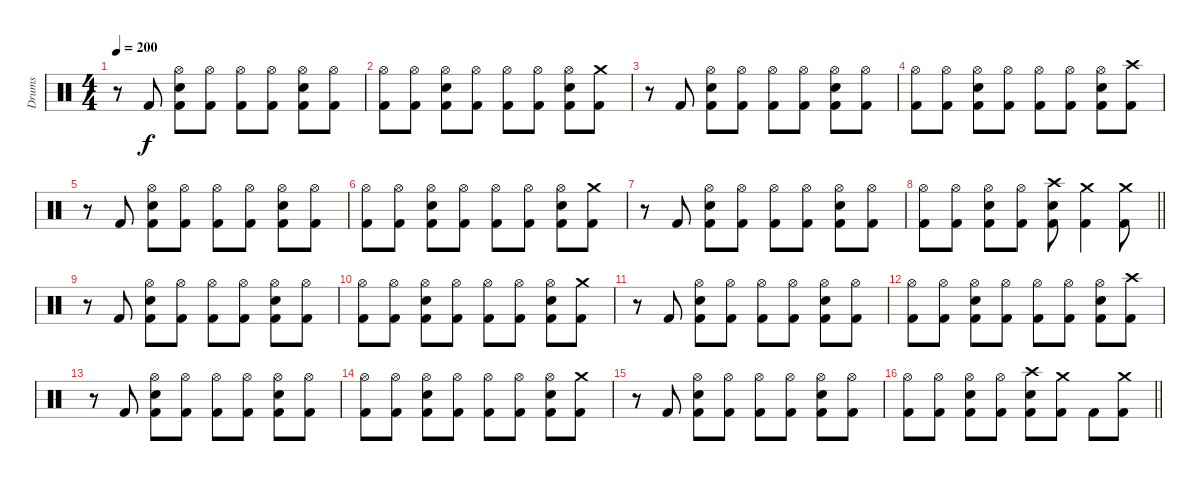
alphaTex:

\track ("Drums" "Drums") {instrument percussion}
\staff {score}
\articulation defaults
\ts (4 4)
\section ("" "")
\tempo 200
\clef neutral
\ks c
r.8{dy f} "Kick (hit) 2".8 ("Hi-Hat (open)" "Electric Snare (hit)" "Kick (hit) 2").8 ("Hi-Hat (open)" "Kick (hit) 2").8 ("Hi-Hat (open)" "Kick (hit) 2").8 ("Hi-Hat (open)" "Kick (hit) 2").8 ("Hi-Hat (open)" "Electric Snare (hit)" "Kick (hit) 2").8 ("Hi-Hat (open)" "Kick (hit) 2").8 |
("Hi-Hat (open)" "Kick (hit) 2").8 ("Hi-Hat (open)" "Kick (hit) 2").8 ("Hi-Hat (open)" "Electric Snare (hit)" "Kick (hit) 2").8 ("Hi-Hat (open)" "Kick (hit) 2").8 ("Hi-Hat (open)" "Kick (hit) 2").8 ("Hi-Hat (open)" "Kick (hit) 2").8 ("Hi-Hat (open)" "Electric Snare (hit)" "Kick (hit) 2").8 ("Crash medium (hit)" "Kick (hit) 2").8 |
r.8 "Kick (hit) 2".8 ("Hi-Hat (open)" "Electric Snare (hit)" "Kick (hit) 2").8 ("Hi-Hat (open)" "Kick (hit) 2").8 ("Hi-Hat (open)" "Kick (hit) 2").8 ("Hi-Hat (open)" "Kick (hit) 2").8 ("Hi-Hat (open)" "Electric Snare (hit)" "Kick (hit) 2").8 ("Hi-Hat (open)" "Kick (hit) 2").8 |
("Hi-Hat (open)" "Kick (hit) 2").8 ("Hi-Hat (open)" "Kick (hit) 2").8 ("Hi-Hat (open)" "Electric Snare (hit)" "Kick (hit) 2").8 ("Hi-Hat (open)" "Kick (hit) 2").8 ("Hi-Hat (open)" "Kick (hit) 2").8 ("Hi-Hat (open)" "Kick (hit) 2").8 ("Hi-Hat (open)" "Electric Snare (hit)" "Kick (hit) 2").8 ("Crash high (hit)" "Kick (hit) 2").8 |
r.8 "Kick (hit) 2".8 ("Hi-Hat (open)" "Electric Snare (hit)" "Kick (hit) 2").8 ("Hi-Hat (open)" "Kick (hit) 2").8 ("Hi-Hat (open)" "Kick (hit) 2").8 ("Hi-Hat (open)" "Kick (hit) 2").8 ("Hi-Hat (open)" "Electric Snare (hit)" "Kick (hit) 2").8 ("Hi-Hat (open)" "Kick (hit) 2").8 |
("Hi-Hat (open)" "Kick (hit) 2").8 ("Hi-Hat (open)" "Kick (hit) 2").8 ("Hi-Hat (open)" "Electric Snare (hit)" "Kick (hit) 2").8 ("Hi-Hat (open)" "Kick (hit) 2").8 ("Hi-Hat (open)" "Kick (hit) 2").8 ("Hi-Hat (open)" "Kick (hit) 2").8 ("Hi-Hat (open)" "Electric Snare (hit)" "Kick (hit) 2").8 ("Crash medium (hit)" "Kick (hit) 2").8 |
r.8 "Kick (hit) 2".8 ("Hi-Hat (open)" "Electric Snare (hit)" "Kick (hit) 2").8 ("Hi-Hat (open)" "Kick (hit) 2").8 ("Hi-Hat (open)" "Kick (hit) 2").8 ("Hi-Hat (open)" "Kick (hit) 2").8 ("Hi-Hat (open)" "Electric Snare (hit)" "Kick (hit) 2").8 ("Hi-Hat (open)" "Kick (hit) 2").8 |
\barLineRight lightlight
("Hi-Hat (open)" "Kick (hit) 2").8 ("Hi-Hat (open)" "Kick (hit) 2").8 ("Hi-Hat (open)" "Electric Snare (hit)" "Kick (hit) 2").8 ("Hi-Hat (open)" "Kick (hit) 2").8 ("Crash high (hit)" "Electric Snare (hit)" "Kick (hit) 2").8 ("Crash medium (hit)" "Kick (hit) 2").4 ("Crash medium (hit)" "Kick (hit) 2").8 |
r.8 "Kick (hit) 2".8 ("Hi-Hat (open)" "Electric Snare (hit)" "Kick (hit) 2").8 ("Hi-Hat (open)" "Kick (hit) 2").8 ("Hi-Hat (open)" "Kick (hit) 2").8 ("Hi-Hat (open)" "Kick (hit) 2").8 ("Hi-Hat (open)" "Electric Snare (hit)" "Kick (hit) 2").8 ("Hi-Hat (open)" "Kick (hit) 2").8 |
("Hi-Hat (open)" "Kick (hit) 2").8 ("Hi-Hat (open)" "Kick (hit) 2").8 ("Hi-Hat (open)" "Electric Snare (hit)" "Kick (hit) 2").8 ("Hi-Hat (open)" "Kick (hit) 2").8 ("Hi-Hat (open)" "Kick (hit) 2").8 ("Hi-Hat (open)" "Kick (hit) 2").8 ("Hi-Hat (open)" "Electric Snare (hit)" "Kick (hit) 2").8 ("Crash medium (hit)" "Kick (hit) 2").8 |
r.8 "Kick (hit) 2".8 ("Hi-Hat (open)" "Electric Snare (hit)" "Kick (hit) 2").8 ("Hi-Hat (open)" "Kick (hit) 2").8 ("Hi-Hat (open)" "Kick (hit) 2").8 ("Hi-Hat (open)" "Kick (hit) 2").8 ("Hi-Hat (open)" "Electric Snare (hit)" "Kick (hit) 2").8 ("Hi-Hat (open)" "Kick (hit) 2").8 |
("Hi-Hat (open)" "Kick (hit) 2").8 ("Hi-Hat (open)" "Kick (hit) 2").8 ("Hi-Hat (open)" "Electric Snare (hit)" "Kick (hit) 2").8 ("Hi-Hat (open)" "Kick (hit) 2").8 ("Hi-Hat (open)" "Kick (hit) 2").8 ("Hi-Hat (open)" "Kick (hit) 2").8 ("Hi-Hat (open)" "Electric Snare (hit)" "Kick (hit) 2").8 ("Crash high (hit)" "Kick (hit) 2").8 |
r.8 "Kick (hit) 2".8 ("Hi-Hat (open)" "Electric Snare (hit)" "Kick (hit) 2").8 ("Hi-Hat (open)" "Kick (hit) 2").8 ("Hi-Hat (open)" "Kick (hit) 2").8 ("Hi-Hat (open)" "Kick (hit) 2").8 ("Hi-Hat (open)" "Electric Snare (hit)" "Kick (hit) 2").8 ("Hi-Hat (open)" "Kick (hit) 2").8 |
("Hi-Hat (open)" "Kick (hit) 2").8 ("Hi-Hat (open)" "Kick (hit) 2").8 ("Hi-Hat (open)" "Electric Snare (hit)" "Kick (hit) 2").8 ("Hi-Hat (open)" "Kick (hit) 2").8 ("Hi-Hat (open)" "Kick (hit) 2").8 ("Hi-Hat (open)" "Kick (hit) 2").8 ("Hi-Hat (open)" "Electric Snare (hit)" "Kick (hit) 2").8 ("Crash medium (hit)" "Kick (hit) 2").8 |
r.8 "Kick (hit) 2".8 ("Hi-Hat (open)" "Electric Snare (hit)" "Kick (hit) 2").8 ("Hi-Hat (open)" "Kick (hit) 2").8 ("Hi-Hat (open)" "Kick (hit) 2").8 ("Hi-Hat (open)" "Kick (hit) 2").8 ("Hi-Hat (open)" "Electric Snare (hit)" "Kick (hit) 2").8 ("Hi-Hat (open)" "Kick (hit) 2").8 |
\barLineRight lightlight
("Hi-Hat (open)" "Kick (hit) 2").8 ("Hi-Hat (open)" "Kick (hit) 2").8 ("Hi-Hat (open)" "Electric Snare (hit)" "Kick (hit) 2").8 ("Hi-Hat (open)" "Kick (hit) 2").8 ("Crash high (hit)" "Electric Snare (hit)" "Kick (hit) 2").8 ("Crash medium (hit)" "Kick (hit) 2").8 "Kick (hit) 2".8 ("Crash medium (hit)" "Kick (hit) 2").8
